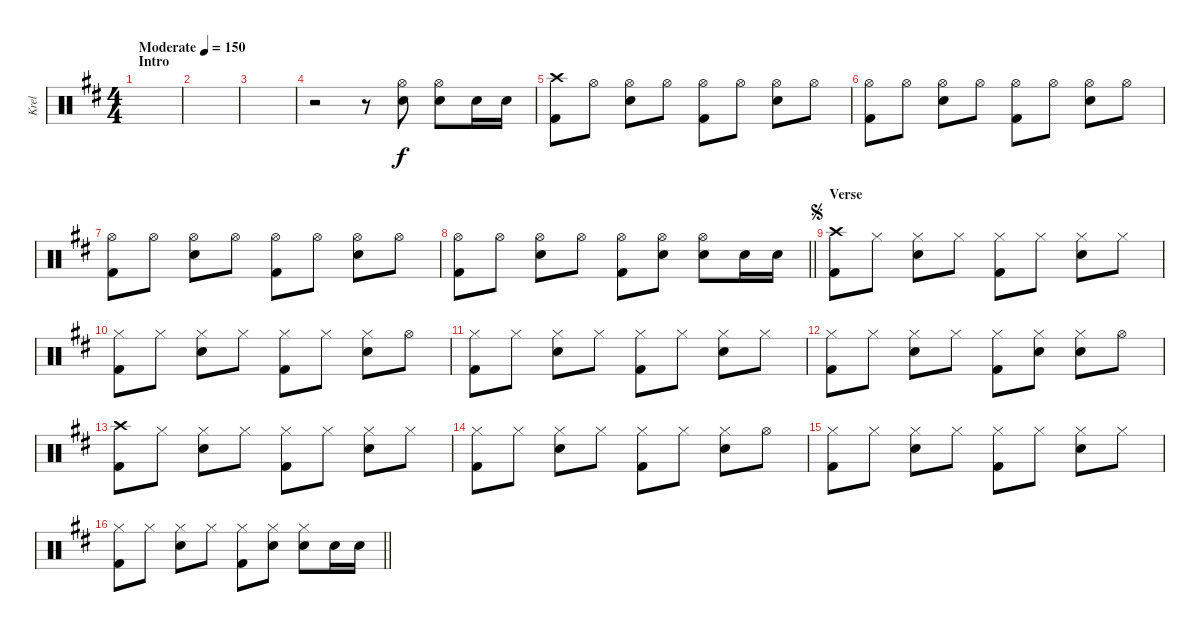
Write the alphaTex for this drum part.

\track ("Krel" "Krel") {instrument percussion}
\staff {score}
\articulation defaults
\ts (4 4)
\section ("" "Intro")
\tempo (150 "Moderate")
\clef neutral
\ks d
|
|
|
r.2 r.8 ("Hi-Hat (open)" "Snare (hit) 2").8 ("Hi-Hat (open)" "Snare (hit) 2").8 "Snare (hit) 2".16 "Snare (hit) 2".16 |
("Crash high (hit)" "Kick (hit) 2").8 "Hi-Hat (open)".8 ("Hi-Hat (open)" "Snare (hit) 2").8 "Hi-Hat (open)".8 ("Hi-Hat (open)" "Kick (hit) 2").8 "Hi-Hat (open)".8 ("Hi-Hat (open)" "Snare (hit) 2").8 "Hi-Hat (open)".8 |
("Hi-Hat (open)" "Kick (hit) 2").8 "Hi-Hat (open)".8 ("Hi-Hat (open)" "Snare (hit) 2").8 "Hi-Hat (open)".8 ("Hi-Hat (open)" "Kick (hit) 2").8 "Hi-Hat (open)".8 ("Hi-Hat (open)" "Snare (hit) 2").8 "Hi-Hat (open)".8 |
("Hi-Hat (open)" "Kick (hit) 2").8 "Hi-Hat (open)".8 ("Hi-Hat (open)" "Snare (hit) 2").8 "Hi-Hat (open)".8 ("Hi-Hat (open)" "Kick (hit) 2").8 "Hi-Hat (open)".8 ("Hi-Hat (open)" "Snare (hit) 2").8 "Hi-Hat (open)".8 |
\barLineRight lightlight
("Hi-Hat (open)" "Kick (hit) 2").8 "Hi-Hat (open)".8 ("Hi-Hat (open)" "Snare (hit) 2").8 "Hi-Hat (open)".8 ("Hi-Hat (open)" "Kick (hit) 2").8 ("Hi-Hat (open)" "Snare (hit) 2").8 ("Hi-Hat (open)" "Snare (hit) 2").8 "Snare (hit) 2".16 "Snare (hit) 2".16 |
\section ("" "Verse")
\jump segno
("Crash high (hit)" "Kick (hit) 2").8 "Hi-Hat (closed)".8 ("Hi-Hat (closed)" "Snare (hit) 2").8 "Hi-Hat (closed)".8 ("Hi-Hat (closed)" "Kick (hit) 2").8 "Hi-Hat (closed)".8 ("Hi-Hat (closed)" "Snare (hit) 2").8 "Hi-Hat (closed)".8 |
("Hi-Hat (closed)" "Kick (hit) 2").8 "Hi-Hat (closed)".8 ("Hi-Hat (closed)" "Snare (hit) 2").8 "Hi-Hat (closed)".8 ("Hi-Hat (closed)" "Kick (hit) 2").8 "Hi-Hat (closed)".8 ("Hi-Hat (closed)" "Snare (hit) 2").8 "Hi-Hat (open)".8 |
("Hi-Hat (closed)" "Kick (hit) 2").8 "Hi-Hat (closed)".8 ("Hi-Hat (closed)" "Snare (hit) 2").8 "Hi-Hat (closed)".8 ("Hi-Hat (closed)" "Kick (hit) 2").8 "Hi-Hat (closed)".8 ("Hi-Hat (closed)" "Snare (hit) 2").8 "Hi-Hat (closed)".8 |
("Hi-Hat (closed)" "Kick (hit) 2").8 "Hi-Hat (closed)".8 ("Hi-Hat (closed)" "Snare (hit) 2").8 "Hi-Hat (closed)".8 ("Hi-Hat (closed)" "Kick (hit) 2").8 ("Hi-Hat (closed)" "Snare (hit) 2").8 ("Hi-Hat (closed)" "Snare (hit) 2").8 "Hi-Hat (open)".8 |
("Crash high (hit)" "Kick (hit) 2").8 "Hi-Hat (closed)".8 ("Hi-Hat (closed)" "Snare (hit) 2").8 "Hi-Hat (closed)".8 ("Hi-Hat (closed)" "Kick (hit) 2").8 "Hi-Hat (closed)".8 ("Hi-Hat (closed)" "Snare (hit) 2").8 "Hi-Hat (closed)".8 |
("Hi-Hat (closed)" "Kick (hit) 2").8 "Hi-Hat (closed)".8 ("Hi-Hat (closed)" "Snare (hit) 2").8 "Hi-Hat (closed)".8 ("Hi-Hat (closed)" "Kick (hit) 2").8 "Hi-Hat (closed)".8 ("Hi-Hat (closed)" "Snare (hit) 2").8 "Hi-Hat (open)".8 |
("Hi-Hat (closed)" "Kick (hit) 2").8 "Hi-Hat (closed)".8 ("Hi-Hat (closed)" "Snare (hit) 2").8 "Hi-Hat (closed)".8 ("Hi-Hat (closed)" "Kick (hit) 2").8 "Hi-Hat (closed)".8 ("Hi-Hat (closed)" "Snare (hit) 2").8 "Hi-Hat (closed)".8 |
\barLineRight lightlight
("Hi-Hat (closed)" "Kick (hit) 2").8 "Hi-Hat (closed)".8 ("Hi-Hat (closed)" "Snare (hit) 2").8 "Hi-Hat (closed)".8 ("Hi-Hat (closed)" "Kick (hit) 2").8 ("Hi-Hat (closed)" "Snare (hit) 2").8 ("Hi-Hat (closed)" "Snare (hit) 2").8 "Snare (hit) 2".16 "Snare (hit) 2".16
